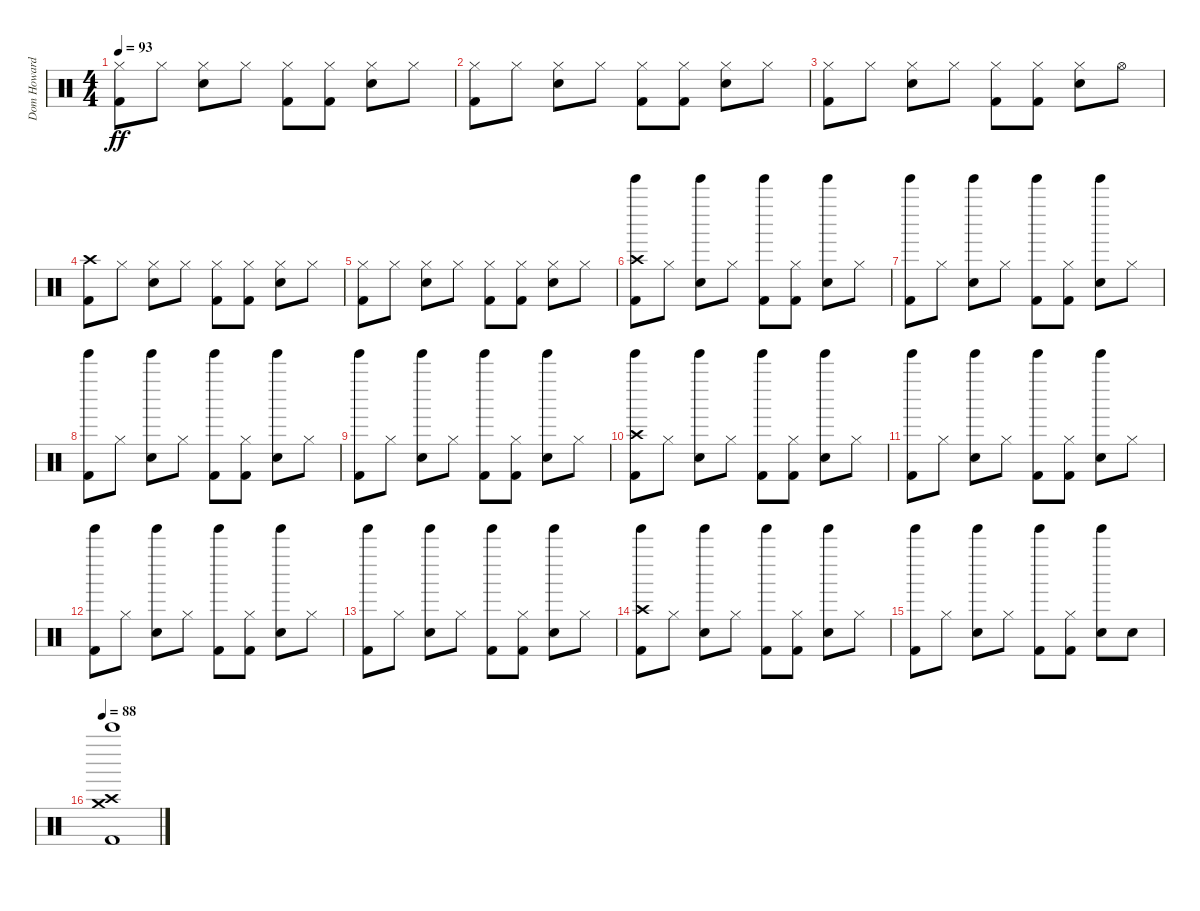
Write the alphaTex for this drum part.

\track ("Dom Howard" "Dom Howard") {instrument percussion}
\staff {score}
\articulation defaults
\ts (4 4)
\tempo 93
\clef neutral
\ks c
("Hi-Hat (closed)" "Kick (hit) 2").8{dy ff} "Hi-Hat (closed)".8 ("Hi-Hat (closed)" "Electric Snare (hit)").8 "Hi-Hat (closed)".8 ("Hi-Hat (closed)" "Kick (hit) 2").8 ("Hi-Hat (closed)" "Kick (hit) 2").8 ("Hi-Hat (closed)" "Electric Snare (hit)").8 "Hi-Hat (closed)".8 |
("Hi-Hat (closed)" "Kick (hit) 2").8 "Hi-Hat (closed)".8 ("Hi-Hat (closed)" "Electric Snare (hit)").8 "Hi-Hat (closed)".8 ("Hi-Hat (closed)" "Kick (hit) 2").8 ("Hi-Hat (closed)" "Kick (hit) 2").8 ("Hi-Hat (closed)" "Electric Snare (hit)").8 "Hi-Hat (closed)".8 |
("Hi-Hat (closed)" "Kick (hit) 2").8 "Hi-Hat (closed)".8 ("Hi-Hat (closed)" "Electric Snare (hit)").8 "Hi-Hat (closed)".8 ("Hi-Hat (closed)" "Kick (hit) 2").8 ("Hi-Hat (closed)" "Kick (hit) 2").8 ("Hi-Hat (closed)" "Electric Snare (hit)").8 "Hi-Hat (open)".8 |
("Crash high (hit)" "Kick (hit) 2").8 "Hi-Hat (closed)".8 ("Hi-Hat (closed)" "Electric Snare (hit)").8 "Hi-Hat (closed)".8 ("Hi-Hat (closed)" "Kick (hit) 2").8 ("Hi-Hat (closed)" "Kick (hit) 2").8 ("Hi-Hat (closed)" "Electric Snare (hit)").8 "Hi-Hat (closed)".8 |
("Hi-Hat (closed)" "Kick (hit) 2").8 "Hi-Hat (closed)".8 ("Hi-Hat (closed)" "Electric Snare (hit)").8 "Hi-Hat (closed)".8 ("Hi-Hat (closed)" "Kick (hit) 2").8 ("Hi-Hat (closed)" "Kick (hit) 2").8 ("Hi-Hat (closed)" "Electric Snare (hit)").8 "Hi-Hat (closed)".8 |
("Tinkle Bell (hit)" "Crash high (hit)" "Kick (hit) 2").8 "Hi-Hat (closed)".8 ("Tinkle Bell (hit)" "Electric Snare (hit)").8 "Hi-Hat (closed)".8 ("Tinkle Bell (hit)" "Kick (hit) 2").8 ("Hi-Hat (closed)" "Kick (hit) 2").8 ("Tinkle Bell (hit)" "Electric Snare (hit)").8 "Hi-Hat (closed)".8 |
("Tinkle Bell (hit)" "Kick (hit) 2").8 "Hi-Hat (closed)".8 ("Tinkle Bell (hit)" "Electric Snare (hit)").8 "Hi-Hat (closed)".8 ("Tinkle Bell (hit)" "Kick (hit) 2").8 ("Hi-Hat (closed)" "Kick (hit) 2").8 ("Tinkle Bell (hit)" "Electric Snare (hit)").8 "Hi-Hat (closed)".8 |
("Tinkle Bell (hit)" "Kick (hit) 2").8 "Hi-Hat (closed)".8 ("Tinkle Bell (hit)" "Electric Snare (hit)").8 "Hi-Hat (closed)".8 ("Tinkle Bell (hit)" "Kick (hit) 2").8 ("Hi-Hat (closed)" "Kick (hit) 2").8 ("Tinkle Bell (hit)" "Electric Snare (hit)").8 "Hi-Hat (closed)".8 |
("Tinkle Bell (hit)" "Kick (hit) 2").8 "Hi-Hat (closed)".8 ("Tinkle Bell (hit)" "Electric Snare (hit)").8 "Hi-Hat (closed)".8 ("Tinkle Bell (hit)" "Kick (hit) 2").8 ("Hi-Hat (closed)" "Kick (hit) 2").8 ("Tinkle Bell (hit)" "Electric Snare (hit)").8 "Hi-Hat (closed)".8 |
("Tinkle Bell (hit)" "Crash high (hit)" "Kick (hit) 2").8 "Hi-Hat (closed)".8 ("Tinkle Bell (hit)" "Electric Snare (hit)").8 "Hi-Hat (closed)".8 ("Tinkle Bell (hit)" "Kick (hit) 2").8 ("Hi-Hat (closed)" "Kick (hit) 2").8 ("Tinkle Bell (hit)" "Electric Snare (hit)").8 "Hi-Hat (closed)".8 |
("Tinkle Bell (hit)" "Kick (hit) 2").8 "Hi-Hat (closed)".8 ("Tinkle Bell (hit)" "Electric Snare (hit)").8 "Hi-Hat (closed)".8 ("Tinkle Bell (hit)" "Kick (hit) 2").8 ("Hi-Hat (closed)" "Kick (hit) 2").8 ("Tinkle Bell (hit)" "Electric Snare (hit)").8 "Hi-Hat (closed)".8 |
("Tinkle Bell (hit)" "Kick (hit) 2").8 "Hi-Hat (closed)".8 ("Tinkle Bell (hit)" "Electric Snare (hit)").8 "Hi-Hat (closed)".8 ("Tinkle Bell (hit)" "Kick (hit) 2").8 ("Hi-Hat (closed)" "Kick (hit) 2").8 ("Tinkle Bell (hit)" "Electric Snare (hit)").8 "Hi-Hat (closed)".8 |
("Tinkle Bell (hit)" "Kick (hit) 2").8 "Hi-Hat (closed)".8 ("Tinkle Bell (hit)" "Electric Snare (hit)").8 "Hi-Hat (closed)".8 ("Tinkle Bell (hit)" "Kick (hit) 2").8 ("Hi-Hat (closed)" "Kick (hit) 2").8 ("Tinkle Bell (hit)" "Electric Snare (hit)").8 "Hi-Hat (closed)".8 |
("Tinkle Bell (hit)" "Crash high (hit)" "Kick (hit) 2").8 "Hi-Hat (closed)".8 ("Tinkle Bell (hit)" "Electric Snare (hit)").8 "Hi-Hat (closed)".8 ("Tinkle Bell (hit)" "Kick (hit) 2").8 ("Hi-Hat (closed)" "Kick (hit) 2").8 ("Tinkle Bell (hit)" "Electric Snare (hit)").8 "Hi-Hat (closed)".8 |
("Tinkle Bell (hit)" "Kick (hit) 2").8 "Hi-Hat (closed)".8 ("Tinkle Bell (hit)" "Electric Snare (hit)").8 "Hi-Hat (closed)".8 ("Tinkle Bell (hit)" "Kick (hit) 2").8 ("Hi-Hat (closed)" "Kick (hit) 2").8 ("Tinkle Bell (hit)" "Electric Snare (hit)").8 "Electric Snare (hit)".8 |
\tempo 88
("Crash high (hit)" "Crash medium (hit)" "Bell Tree (hit)" "Kick (hit) 2").1
